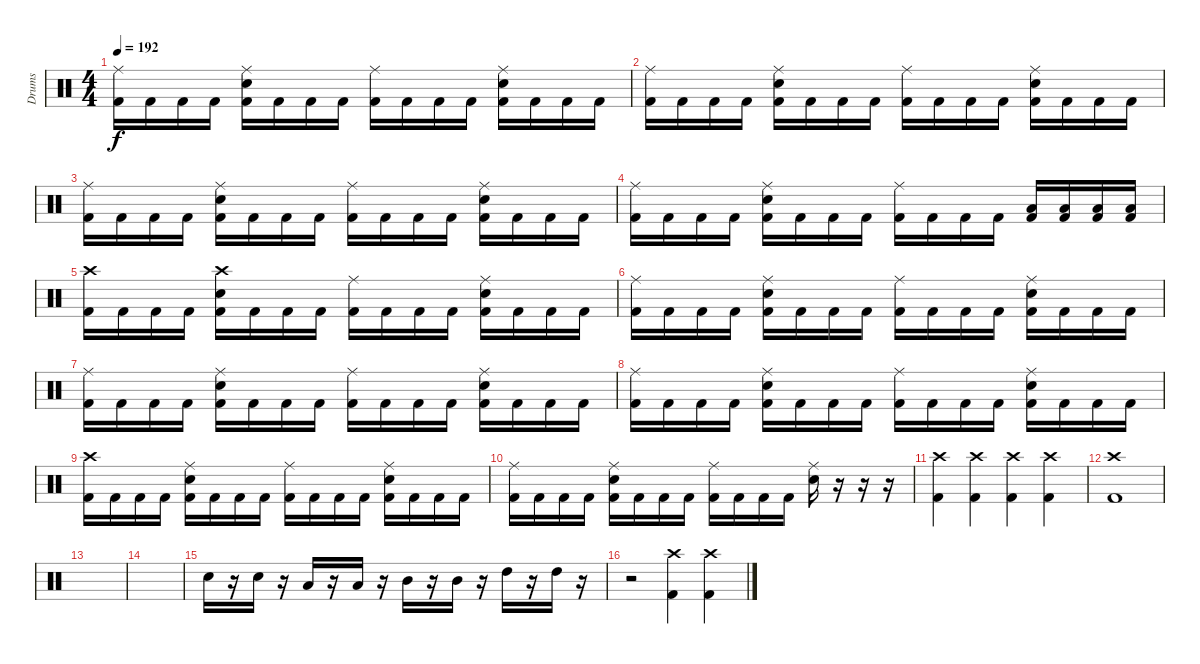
\track ("Drums" "Drums") {instrument percussion}
\staff {score}
\articulation defaults
\ts (4 4)
\tempo 192
\clef neutral
\ks c
("Ride (middle)" "Kick (hit) 2").16{dy f} "Kick (hit) 2".16 "Kick (hit) 2".16 "Kick (hit) 2".16 ("Ride (middle)" "Electric Snare (hit)" "Kick (hit) 2").16 "Kick (hit) 2".16 "Kick (hit) 2".16 "Kick (hit) 2".16 ("Ride (middle)" "Kick (hit) 2").16 "Kick (hit) 2".16 "Kick (hit) 2".16 "Kick (hit) 2".16 ("Ride (middle)" "Electric Snare (hit)" "Kick (hit) 2").16 "Kick (hit) 2".16 "Kick (hit) 2".16 "Kick (hit) 2".16 |
("Ride (middle)" "Kick (hit) 2").16 "Kick (hit) 2".16 "Kick (hit) 2".16 "Kick (hit) 2".16 ("Ride (middle)" "Electric Snare (hit)" "Kick (hit) 2").16 "Kick (hit) 2".16 "Kick (hit) 2".16 "Kick (hit) 2".16 ("Ride (middle)" "Kick (hit) 2").16 "Kick (hit) 2".16 "Kick (hit) 2".16 "Kick (hit) 2".16 ("Ride (middle)" "Electric Snare (hit)" "Kick (hit) 2").16 "Kick (hit) 2".16 "Kick (hit) 2".16 "Kick (hit) 2".16 |
("Ride (middle)" "Kick (hit) 2").16 "Kick (hit) 2".16 "Kick (hit) 2".16 "Kick (hit) 2".16 ("Ride (middle)" "Electric Snare (hit)" "Kick (hit) 2").16 "Kick (hit) 2".16 "Kick (hit) 2".16 "Kick (hit) 2".16 ("Ride (middle)" "Kick (hit) 2").16 "Kick (hit) 2".16 "Kick (hit) 2".16 "Kick (hit) 2".16 ("Ride (middle)" "Electric Snare (hit)" "Kick (hit) 2").16 "Kick (hit) 2".16 "Kick (hit) 2".16 "Kick (hit) 2".16 |
("Ride (middle)" "Kick (hit) 2").16 "Kick (hit) 2".16 "Kick (hit) 2".16 "Kick (hit) 2".16 ("Ride (middle)" "Electric Snare (hit)" "Kick (hit) 2").16 "Kick (hit) 2".16 "Kick (hit) 2".16 "Kick (hit) 2".16 ("Ride (middle)" "Kick (hit) 2").16 "Kick (hit) 2".16 "Kick (hit) 2".16 "Kick (hit) 2".16 ("Low Tom (hit)" "Kick (hit) 2").16 ("Low Tom (hit)" "Kick (hit) 2").16 ("Low Tom (hit)" "Kick (hit) 2").16 ("Low Tom (hit)" "Kick (hit) 2").16 |
("Crash high (hit)" "Kick (hit) 2").16 "Kick (hit) 2".16 "Kick (hit) 2".16 "Kick (hit) 2".16 ("Crash high (hit)" "Electric Snare (hit)" "Kick (hit) 2").16 "Kick (hit) 2".16 "Kick (hit) 2".16 "Kick (hit) 2".16 ("Ride (middle)" "Kick (hit) 2").16 "Kick (hit) 2".16 "Kick (hit) 2".16 "Kick (hit) 2".16 ("Ride (middle)" "Electric Snare (hit)" "Kick (hit) 2").16 "Kick (hit) 2".16 "Kick (hit) 2".16 "Kick (hit) 2".16 |
("Ride (middle)" "Kick (hit) 2").16 "Kick (hit) 2".16 "Kick (hit) 2".16 "Kick (hit) 2".16 ("Ride (middle)" "Electric Snare (hit)" "Kick (hit) 2").16 "Kick (hit) 2".16 "Kick (hit) 2".16 "Kick (hit) 2".16 ("Ride (middle)" "Kick (hit) 2").16 "Kick (hit) 2".16 "Kick (hit) 2".16 "Kick (hit) 2".16 ("Ride (middle)" "Electric Snare (hit)" "Kick (hit) 2").16 "Kick (hit) 2".16 "Kick (hit) 2".16 "Kick (hit) 2".16 |
("Ride (middle)" "Kick (hit) 2").16 "Kick (hit) 2".16 "Kick (hit) 2".16 "Kick (hit) 2".16 ("Ride (middle)" "Electric Snare (hit)" "Kick (hit) 2").16 "Kick (hit) 2".16 "Kick (hit) 2".16 "Kick (hit) 2".16 ("Ride (middle)" "Kick (hit) 2").16 "Kick (hit) 2".16 "Kick (hit) 2".16 "Kick (hit) 2".16 ("Ride (middle)" "Electric Snare (hit)" "Kick (hit) 2").16 "Kick (hit) 2".16 "Kick (hit) 2".16 "Kick (hit) 2".16 |
("Ride (middle)" "Kick (hit) 2").16 "Kick (hit) 2".16 "Kick (hit) 2".16 "Kick (hit) 2".16 ("Ride (middle)" "Electric Snare (hit)" "Kick (hit) 2").16 "Kick (hit) 2".16 "Kick (hit) 2".16 "Kick (hit) 2".16 ("Ride (middle)" "Kick (hit) 2").16 "Kick (hit) 2".16 "Kick (hit) 2".16 "Kick (hit) 2".16 ("Ride (middle)" "Electric Snare (hit)" "Kick (hit) 2").16 "Kick (hit) 2".16 "Kick (hit) 2".16 "Kick (hit) 2".16 |
("Crash high (hit)" "Kick (hit) 2").16 "Kick (hit) 2".16 "Kick (hit) 2".16 "Kick (hit) 2".16 ("Ride (middle)" "Electric Snare (hit)" "Kick (hit) 2").16 "Kick (hit) 2".16 "Kick (hit) 2".16 "Kick (hit) 2".16 ("Ride (middle)" "Kick (hit) 2").16 "Kick (hit) 2".16 "Kick (hit) 2".16 "Kick (hit) 2".16 ("Ride (middle)" "Electric Snare (hit)" "Kick (hit) 2").16 "Kick (hit) 2".16 "Kick (hit) 2".16 "Kick (hit) 2".16 |
("Ride (middle)" "Kick (hit) 2").16 "Kick (hit) 2".16 "Kick (hit) 2".16 "Kick (hit) 2".16 ("Ride (middle)" "Electric Snare (hit)" "Kick (hit) 2").16 "Kick (hit) 2".16 "Kick (hit) 2".16 "Kick (hit) 2".16 ("Ride (middle)" "Kick (hit) 2").16 "Kick (hit) 2".16 "Kick (hit) 2".16 "Kick (hit) 2".16 ("Ride (middle)" "Electric Snare (hit)").16 r.16 r.16 r.16 |
("Crash high (hit)" "Kick (hit) 2").4 ("Crash high (hit)" "Kick (hit) 2").4 ("Crash high (hit)" "Kick (hit) 2").4 ("Crash high (hit)" "Kick (hit) 2").4 |
("Crash high (hit)" "Kick (hit) 2").1 |
|
|
"Electric Snare (hit)".16 r.16 "Electric Snare (hit)".16 r.16 "Low Tom (hit)".16 r.16 "Low Tom (hit)".16 r.16 "Mid Tom (hit)".16 r.16 "Mid Tom (hit)".16 r.16 "High Tom (hit)".16 r.16 "High Tom (hit)".16 r.16 |
r.2 ("Crash high (hit)" "Kick (hit) 2").4 ("Crash high (hit)" "Kick (hit) 2").4
